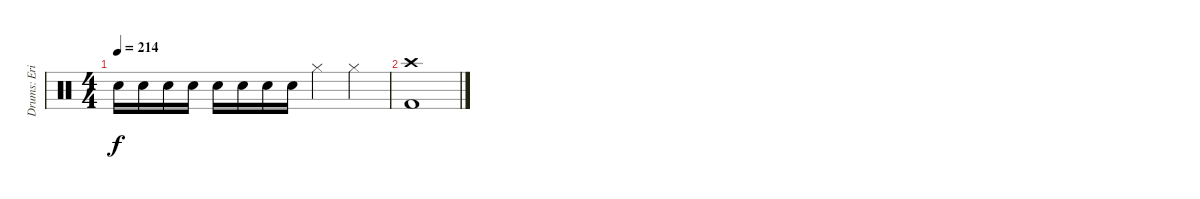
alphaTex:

\track ("Drums: Erik Sandin" "Drums: Eri") {instrument percussion}
\staff {score}
\articulation defaults
\ts (4 4)
\tempo 214
\clef neutral
\ks c "Electric Snare (hit)".16{dy f} "Electric Snare (hit)".16 "Electric Snare (hit)".16 "Electric Snare (hit)".16 "Electric Snare (hit)".16 "Electric Snare (hit)".16 "Electric Snare (hit)".16 "Electric Snare (hit)".16 "Hi-Hat (closed)".4 "Hi-Hat (closed)".4
|
("Crash high (hit)" "Kick (hit) 2").1
